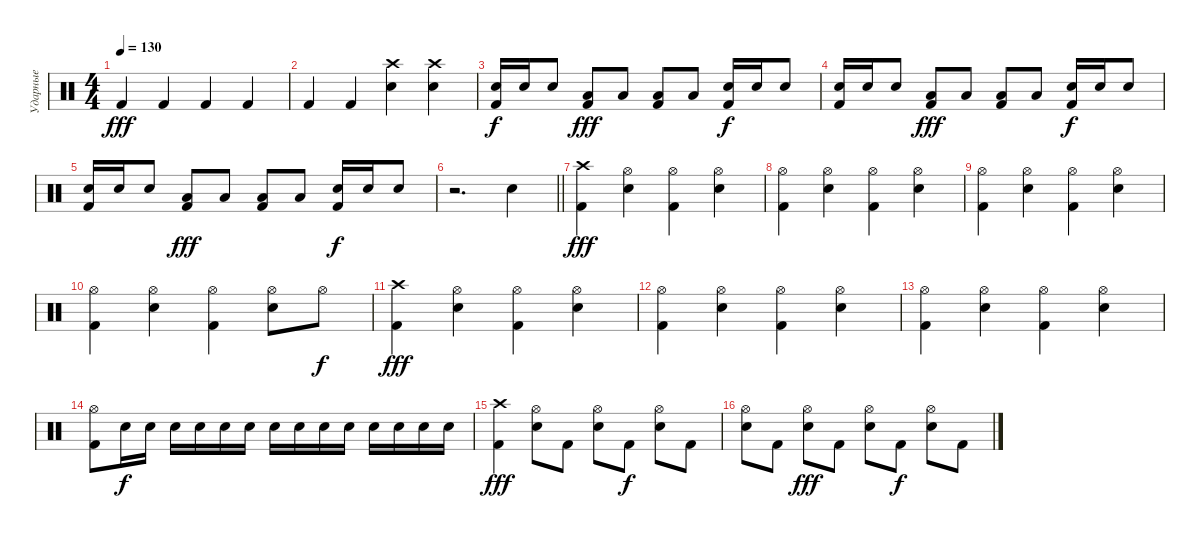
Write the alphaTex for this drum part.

\track ("Ударные" "Ударные") {instrument percussion}
\staff {score}
\articulation defaults
\ts (4 4)
\tempo 130
\clef neutral
\ks c "Kick (hit) 2".4{dy fff} "Kick (hit) 2".4 "Kick (hit) 2".4 "Kick (hit) 2".4
|
"Kick (hit) 2".4 "Kick (hit) 2".4 ("Snare (hit) 2" "Crash high (hit)").4 ("Snare (hit) 2" "Crash high (hit)").4 |
("Kick (hit) 2" "Snare (hit) 2").16{dy f} "Snare (hit) 2".16 "Snare (hit) 2".8 ("Kick (hit) 2" "Low Floor Tom (hit)").8{dy fff} "Low Floor Tom (hit)".8 ("Kick (hit) 2" "Low Floor Tom (hit)").8 "Low Floor Tom (hit)".8 ("Kick (hit) 2" "Snare (hit) 2").16{dy f} "Snare (hit) 2".16 "Snare (hit) 2".8 |
("Kick (hit) 2" "Snare (hit) 2").16 "Snare (hit) 2".16 "Snare (hit) 2".8 ("Kick (hit) 2" "Low Floor Tom (hit)").8{dy fff} "Low Floor Tom (hit)".8 ("Kick (hit) 2" "Low Floor Tom (hit)").8 "Low Floor Tom (hit)".8 ("Kick (hit) 2" "Snare (hit) 2").16{dy f} "Snare (hit) 2".16 "Snare (hit) 2".8 |
("Kick (hit) 2" "Snare (hit) 2").16 "Snare (hit) 2".16 "Snare (hit) 2".8 ("Kick (hit) 2" "Low Floor Tom (hit)").8{dy fff} "Low Floor Tom (hit)".8 ("Kick (hit) 2" "Low Floor Tom (hit)").8 "Low Floor Tom (hit)".8 ("Kick (hit) 2" "Snare (hit) 2").16{dy f} "Snare (hit) 2".16 "Snare (hit) 2".8 |
\barLineRight lightlight
r.2{d} "Snare (hit) 2".4 |
("Kick (hit) 2" "Crash high (hit)").4{dy fff} ("Snare (hit) 2" "Hi-Hat (open)").4 ("Kick (hit) 2" "Hi-Hat (open)").4 ("Snare (hit) 2" "Hi-Hat (open)").4 |
("Kick (hit) 2" "Hi-Hat (open)").4 ("Snare (hit) 2" "Hi-Hat (open)").4 ("Kick (hit) 2" "Hi-Hat (open)").4 ("Snare (hit) 2" "Hi-Hat (open)").4 |
("Kick (hit) 2" "Hi-Hat (open)").4 ("Snare (hit) 2" "Hi-Hat (open)").4 ("Kick (hit) 2" "Hi-Hat (open)").4 ("Snare (hit) 2" "Hi-Hat (open)").4 |
("Kick (hit) 2" "Hi-Hat (open)").4 ("Snare (hit) 2" "Hi-Hat (open)").4 ("Kick (hit) 2" "Hi-Hat (open)").4 ("Snare (hit) 2" "Hi-Hat (open)").8 "Hi-Hat (open)".8{dy f} |
("Kick (hit) 2" "Crash high (hit)").4{dy fff} ("Snare (hit) 2" "Hi-Hat (open)").4 ("Kick (hit) 2" "Hi-Hat (open)").4 ("Snare (hit) 2" "Hi-Hat (open)").4 |
("Kick (hit) 2" "Hi-Hat (open)").4 ("Snare (hit) 2" "Hi-Hat (open)").4 ("Kick (hit) 2" "Hi-Hat (open)").4 ("Snare (hit) 2" "Hi-Hat (open)").4 |
("Kick (hit) 2" "Hi-Hat (open)").4 ("Snare (hit) 2" "Hi-Hat (open)").4 ("Kick (hit) 2" "Hi-Hat (open)").4 ("Snare (hit) 2" "Hi-Hat (open)").4 |
("Kick (hit) 2" "Hi-Hat (open)").8 "Snare (hit) 2".16{dy f} "Snare (hit) 2".16 "Snare (hit) 2".16 "Snare (hit) 2".16 "Snare (hit) 2".16 "Snare (hit) 2".16 "Snare (hit) 2".16 "Snare (hit) 2".16 "Snare (hit) 2".16 "Snare (hit) 2".16 "Snare (hit) 2".16 "Snare (hit) 2".16 "Snare (hit) 2".16 "Snare (hit) 2".16 |
("Kick (hit) 2" "Crash high (hit)").4{dy fff} ("Snare (hit) 2" "Hi-Hat (open)").8 "Kick (hit) 2".8 ("Snare (hit) 2" "Hi-Hat (open)").8 "Kick (hit) 2".8{dy f} ("Snare (hit) 2" "Hi-Hat (open)").8 "Kick (hit) 2".8 |
("Snare (hit) 2" "Hi-Hat (open)").8 "Kick (hit) 2".8 ("Snare (hit) 2" "Hi-Hat (open)").8{dy fff} "Kick (hit) 2".8 ("Snare (hit) 2" "Hi-Hat (open)").8 "Kick (hit) 2".8{dy f} ("Snare (hit) 2" "Hi-Hat (open)").8 "Kick (hit) 2".8
